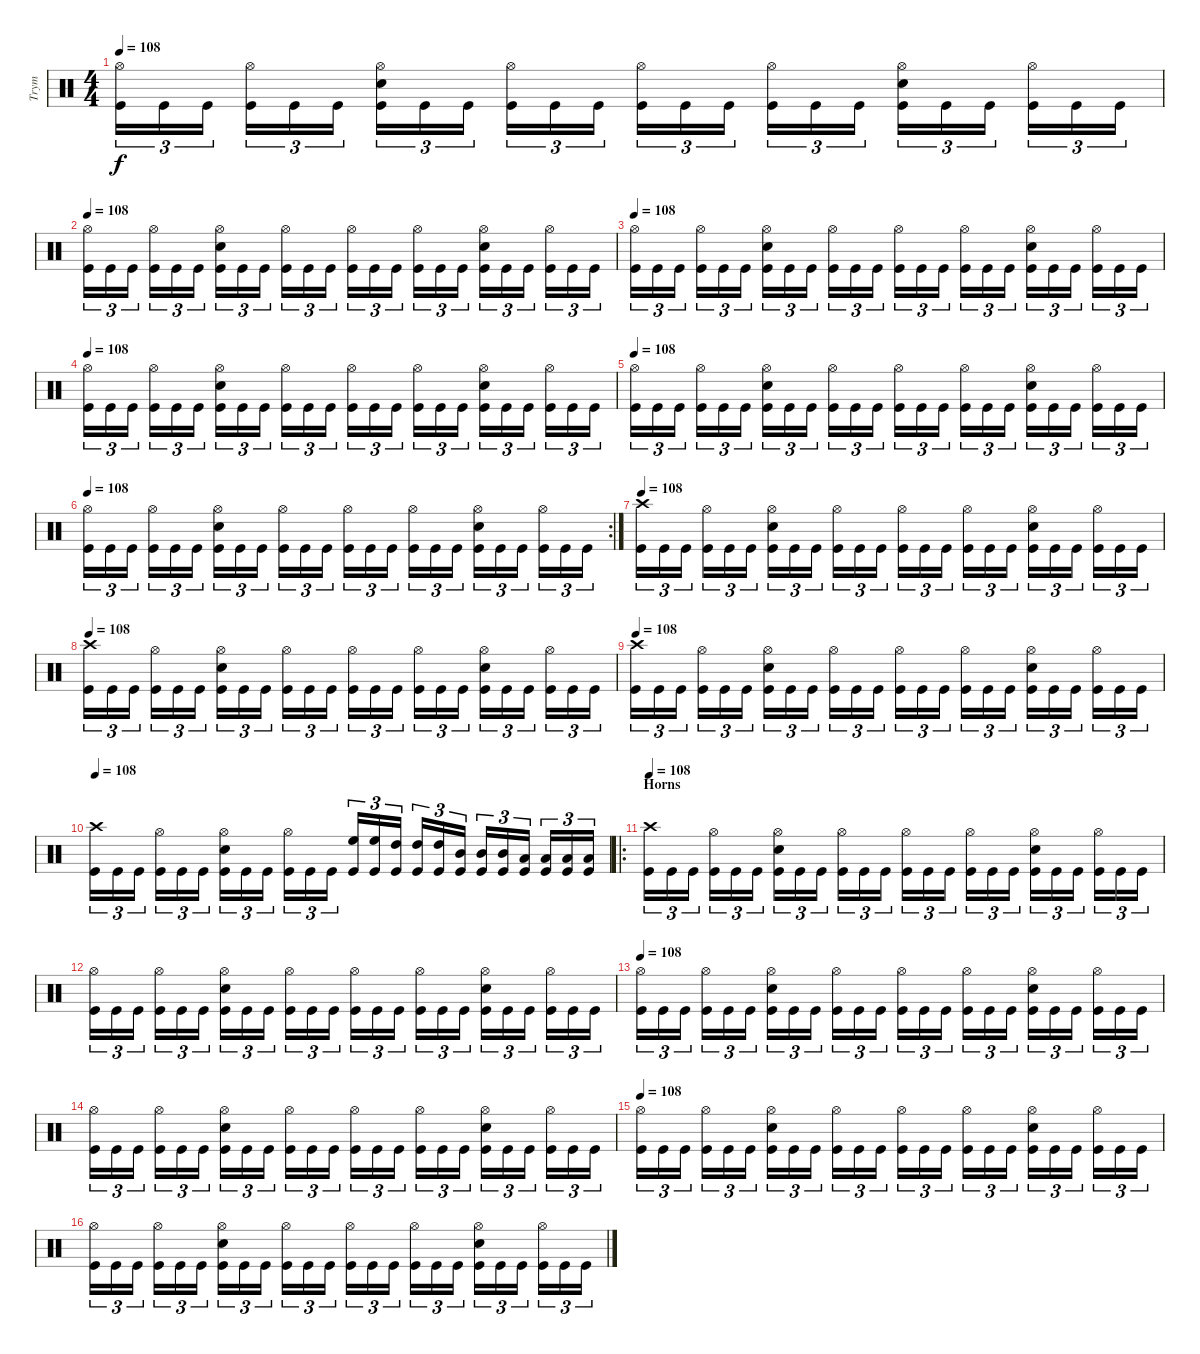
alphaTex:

\track ("Trym" "Trym") {instrument percussion}
\staff {score}
\articulation defaults
\ts (4 4)
\tempo 108
\clef neutral
\ks c
("Hi-Hat (open)" "Kick (hit)").16{tu (3 2) dy f} "Kick (hit)".16{tu (3 2)} "Kick (hit)".16{tu (3 2)} ("Hi-Hat (open)" "Kick (hit)").16{tu (3 2)} "Kick (hit)".16{tu (3 2)} "Kick (hit)".16{tu (3 2)} ("Hi-Hat (open)" "Electric Snare (hit)" "Kick (hit)").16{tu (3 2)} "Kick (hit)".16{tu (3 2)} "Kick (hit)".16{tu (3 2)} ("Hi-Hat (open)" "Kick (hit)").16{tu (3 2)} "Kick (hit)".16{tu (3 2)} "Kick (hit)".16{tu (3 2)} ("Hi-Hat (open)" "Kick (hit)").16{tu (3 2)} "Kick (hit)".16{tu (3 2)} "Kick (hit)".16{tu (3 2)} ("Hi-Hat (open)" "Kick (hit)").16{tu (3 2)} "Kick (hit)".16{tu (3 2)} "Kick (hit)".16{tu (3 2)} ("Hi-Hat (open)" "Electric Snare (hit)" "Kick (hit)").16{tu (3 2)} "Kick (hit)".16{tu (3 2)} "Kick (hit)".16{tu (3 2)} ("Hi-Hat (open)" "Kick (hit)").16{tu (3 2)} "Kick (hit)".16{tu (3 2)} "Kick (hit)".16{tu (3 2)} |
\tempo 108
("Hi-Hat (open)" "Kick (hit)").16{tu (3 2)} "Kick (hit)".16{tu (3 2)} "Kick (hit)".16{tu (3 2)} ("Hi-Hat (open)" "Kick (hit)").16{tu (3 2)} "Kick (hit)".16{tu (3 2)} "Kick (hit)".16{tu (3 2)} ("Hi-Hat (open)" "Electric Snare (hit)" "Kick (hit)").16{tu (3 2)} "Kick (hit)".16{tu (3 2)} "Kick (hit)".16{tu (3 2)} ("Hi-Hat (open)" "Kick (hit)").16{tu (3 2)} "Kick (hit)".16{tu (3 2)} "Kick (hit)".16{tu (3 2)} ("Hi-Hat (open)" "Kick (hit)").16{tu (3 2)} "Kick (hit)".16{tu (3 2)} "Kick (hit)".16{tu (3 2)} ("Hi-Hat (open)" "Kick (hit)").16{tu (3 2)} "Kick (hit)".16{tu (3 2)} "Kick (hit)".16{tu (3 2)} ("Hi-Hat (open)" "Electric Snare (hit)" "Kick (hit)").16{tu (3 2)} "Kick (hit)".16{tu (3 2)} "Kick (hit)".16{tu (3 2)} ("Hi-Hat (open)" "Kick (hit)").16{tu (3 2)} "Kick (hit)".16{tu (3 2)} "Kick (hit)".16{tu (3 2)} |
\tempo 108
("Hi-Hat (open)" "Kick (hit)").16{tu (3 2)} "Kick (hit)".16{tu (3 2)} "Kick (hit)".16{tu (3 2)} ("Hi-Hat (open)" "Kick (hit)").16{tu (3 2)} "Kick (hit)".16{tu (3 2)} "Kick (hit)".16{tu (3 2)} ("Hi-Hat (open)" "Electric Snare (hit)" "Kick (hit)").16{tu (3 2)} "Kick (hit)".16{tu (3 2)} "Kick (hit)".16{tu (3 2)} ("Hi-Hat (open)" "Kick (hit)").16{tu (3 2)} "Kick (hit)".16{tu (3 2)} "Kick (hit)".16{tu (3 2)} ("Hi-Hat (open)" "Kick (hit)").16{tu (3 2)} "Kick (hit)".16{tu (3 2)} "Kick (hit)".16{tu (3 2)} ("Hi-Hat (open)" "Kick (hit)").16{tu (3 2)} "Kick (hit)".16{tu (3 2)} "Kick (hit)".16{tu (3 2)} ("Hi-Hat (open)" "Electric Snare (hit)" "Kick (hit)").16{tu (3 2)} "Kick (hit)".16{tu (3 2)} "Kick (hit)".16{tu (3 2)} ("Hi-Hat (open)" "Kick (hit)").16{tu (3 2)} "Kick (hit)".16{tu (3 2)} "Kick (hit)".16{tu (3 2)} |
\tempo 108
("Hi-Hat (open)" "Kick (hit)").16{tu (3 2)} "Kick (hit)".16{tu (3 2)} "Kick (hit)".16{tu (3 2)} ("Hi-Hat (open)" "Kick (hit)").16{tu (3 2)} "Kick (hit)".16{tu (3 2)} "Kick (hit)".16{tu (3 2)} ("Hi-Hat (open)" "Electric Snare (hit)" "Kick (hit)").16{tu (3 2)} "Kick (hit)".16{tu (3 2)} "Kick (hit)".16{tu (3 2)} ("Hi-Hat (open)" "Kick (hit)").16{tu (3 2)} "Kick (hit)".16{tu (3 2)} "Kick (hit)".16{tu (3 2)} ("Hi-Hat (open)" "Kick (hit)").16{tu (3 2)} "Kick (hit)".16{tu (3 2)} "Kick (hit)".16{tu (3 2)} ("Hi-Hat (open)" "Kick (hit)").16{tu (3 2)} "Kick (hit)".16{tu (3 2)} "Kick (hit)".16{tu (3 2)} ("Hi-Hat (open)" "Electric Snare (hit)" "Kick (hit)").16{tu (3 2)} "Kick (hit)".16{tu (3 2)} "Kick (hit)".16{tu (3 2)} ("Hi-Hat (open)" "Kick (hit)").16{tu (3 2)} "Kick (hit)".16{tu (3 2)} "Kick (hit)".16{tu (3 2)} |
\tempo 108
("Hi-Hat (open)" "Kick (hit)").16{tu (3 2)} "Kick (hit)".16{tu (3 2)} "Kick (hit)".16{tu (3 2)} ("Hi-Hat (open)" "Kick (hit)").16{tu (3 2)} "Kick (hit)".16{tu (3 2)} "Kick (hit)".16{tu (3 2)} ("Hi-Hat (open)" "Electric Snare (hit)" "Kick (hit)").16{tu (3 2)} "Kick (hit)".16{tu (3 2)} "Kick (hit)".16{tu (3 2)} ("Hi-Hat (open)" "Kick (hit)").16{tu (3 2)} "Kick (hit)".16{tu (3 2)} "Kick (hit)".16{tu (3 2)} ("Hi-Hat (open)" "Kick (hit)").16{tu (3 2)} "Kick (hit)".16{tu (3 2)} "Kick (hit)".16{tu (3 2)} ("Hi-Hat (open)" "Kick (hit)").16{tu (3 2)} "Kick (hit)".16{tu (3 2)} "Kick (hit)".16{tu (3 2)} ("Hi-Hat (open)" "Electric Snare (hit)" "Kick (hit)").16{tu (3 2)} "Kick (hit)".16{tu (3 2)} "Kick (hit)".16{tu (3 2)} ("Hi-Hat (open)" "Kick (hit)").16{tu (3 2)} "Kick (hit)".16{tu (3 2)} "Kick (hit)".16{tu (3 2)} |
\rc 2
\tempo 108
("Hi-Hat (open)" "Kick (hit)").16{tu (3 2)} "Kick (hit)".16{tu (3 2)} "Kick (hit)".16{tu (3 2)} ("Hi-Hat (open)" "Kick (hit)").16{tu (3 2)} "Kick (hit)".16{tu (3 2)} "Kick (hit)".16{tu (3 2)} ("Hi-Hat (open)" "Electric Snare (hit)" "Kick (hit)").16{tu (3 2)} "Kick (hit)".16{tu (3 2)} "Kick (hit)".16{tu (3 2)} ("Hi-Hat (open)" "Kick (hit)").16{tu (3 2)} "Kick (hit)".16{tu (3 2)} "Kick (hit)".16{tu (3 2)} ("Hi-Hat (open)" "Kick (hit)").16{tu (3 2)} "Kick (hit)".16{tu (3 2)} "Kick (hit)".16{tu (3 2)} ("Hi-Hat (open)" "Kick (hit)").16{tu (3 2)} "Kick (hit)".16{tu (3 2)} "Kick (hit)".16{tu (3 2)} ("Hi-Hat (open)" "Electric Snare (hit)" "Kick (hit)").16{tu (3 2)} "Kick (hit)".16{tu (3 2)} "Kick (hit)".16{tu (3 2)} ("Hi-Hat (open)" "Kick (hit)").16{tu (3 2)} "Kick (hit)".16{tu (3 2)} "Kick (hit)".16{tu (3 2)} |
\tempo 108
("Crash high (hit)" "Kick (hit)").16{tu (3 2)} "Kick (hit)".16{tu (3 2)} "Kick (hit)".16{tu (3 2)} ("Hi-Hat (open)" "Kick (hit)").16{tu (3 2)} "Kick (hit)".16{tu (3 2)} "Kick (hit)".16{tu (3 2)} ("Hi-Hat (open)" "Electric Snare (hit)" "Kick (hit)").16{tu (3 2)} "Kick (hit)".16{tu (3 2)} "Kick (hit)".16{tu (3 2)} ("Hi-Hat (open)" "Kick (hit)").16{tu (3 2)} "Kick (hit)".16{tu (3 2)} "Kick (hit)".16{tu (3 2)} ("Hi-Hat (open)" "Kick (hit)").16{tu (3 2)} "Kick (hit)".16{tu (3 2)} "Kick (hit)".16{tu (3 2)} ("Hi-Hat (open)" "Kick (hit)").16{tu (3 2)} "Kick (hit)".16{tu (3 2)} "Kick (hit)".16{tu (3 2)} ("Hi-Hat (open)" "Electric Snare (hit)" "Kick (hit)").16{tu (3 2)} "Kick (hit)".16{tu (3 2)} "Kick (hit)".16{tu (3 2)} ("Hi-Hat (open)" "Kick (hit)").16{tu (3 2)} "Kick (hit)".16{tu (3 2)} "Kick (hit)".16{tu (3 2)} |
\tempo 108
("Crash high (hit)" "Kick (hit)").16{tu (3 2)} "Kick (hit)".16{tu (3 2)} "Kick (hit)".16{tu (3 2)} ("Hi-Hat (open)" "Kick (hit)").16{tu (3 2)} "Kick (hit)".16{tu (3 2)} "Kick (hit)".16{tu (3 2)} ("Hi-Hat (open)" "Electric Snare (hit)" "Kick (hit)").16{tu (3 2)} "Kick (hit)".16{tu (3 2)} "Kick (hit)".16{tu (3 2)} ("Hi-Hat (open)" "Kick (hit)").16{tu (3 2)} "Kick (hit)".16{tu (3 2)} "Kick (hit)".16{tu (3 2)} ("Hi-Hat (open)" "Kick (hit)").16{tu (3 2)} "Kick (hit)".16{tu (3 2)} "Kick (hit)".16{tu (3 2)} ("Hi-Hat (open)" "Kick (hit)").16{tu (3 2)} "Kick (hit)".16{tu (3 2)} "Kick (hit)".16{tu (3 2)} ("Hi-Hat (open)" "Electric Snare (hit)" "Kick (hit)").16{tu (3 2)} "Kick (hit)".16{tu (3 2)} "Kick (hit)".16{tu (3 2)} ("Hi-Hat (open)" "Kick (hit)").16{tu (3 2)} "Kick (hit)".16{tu (3 2)} "Kick (hit)".16{tu (3 2)} |
\tempo 108
("Crash high (hit)" "Kick (hit)").16{tu (3 2)} "Kick (hit)".16{tu (3 2)} "Kick (hit)".16{tu (3 2)} ("Hi-Hat (open)" "Kick (hit)").16{tu (3 2)} "Kick (hit)".16{tu (3 2)} "Kick (hit)".16{tu (3 2)} ("Hi-Hat (open)" "Electric Snare (hit)" "Kick (hit)").16{tu (3 2)} "Kick (hit)".16{tu (3 2)} "Kick (hit)".16{tu (3 2)} ("Hi-Hat (open)" "Kick (hit)").16{tu (3 2)} "Kick (hit)".16{tu (3 2)} "Kick (hit)".16{tu (3 2)} ("Hi-Hat (open)" "Kick (hit)").16{tu (3 2)} "Kick (hit)".16{tu (3 2)} "Kick (hit)".16{tu (3 2)} ("Hi-Hat (open)" "Kick (hit)").16{tu (3 2)} "Kick (hit)".16{tu (3 2)} "Kick (hit)".16{tu (3 2)} ("Hi-Hat (open)" "Electric Snare (hit)" "Kick (hit)").16{tu (3 2)} "Kick (hit)".16{tu (3 2)} "Kick (hit)".16{tu (3 2)} ("Hi-Hat (open)" "Kick (hit)").16{tu (3 2)} "Kick (hit)".16{tu (3 2)} "Kick (hit)".16{tu (3 2)} |
\tempo 108
("Crash high (hit)" "Kick (hit)").16{tu (3 2)} "Kick (hit)".16{tu (3 2)} "Kick (hit)".16{tu (3 2)} ("Hi-Hat (open)" "Kick (hit)").16{tu (3 2)} "Kick (hit)".16{tu (3 2)} "Kick (hit)".16{tu (3 2)} ("Hi-Hat (open)" "Electric Snare (hit)" "Kick (hit)").16{tu (3 2)} "Kick (hit)".16{tu (3 2)} "Kick (hit)".16{tu (3 2)} ("Hi-Hat (open)" "Kick (hit)").16{tu (3 2)} "Kick (hit)".16{tu (3 2)} "Kick (hit)".16{tu (3 2)} ("High Floor Tom (hit)" "Kick (hit)").16{tu (3 2)} ("High Floor Tom (hit)" "Kick (hit)").16{tu (3 2)} ("High Tom (hit)" "Kick (hit)").16{tu (3 2)} ("High Tom (hit)" "Kick (hit)").16{tu (3 2)} ("High Tom (hit)" "Kick (hit)").16{tu (3 2)} ("Mid Tom (hit)" "Kick (hit)").16{tu (3 2)} ("Mid Tom (hit)" "Kick (hit)").16{tu (3 2)} ("Mid Tom (hit)" "Kick (hit)").16{tu (3 2)} ("Low Tom (hit)" "Kick (hit)").16{tu (3 2)} ("Low Tom (hit)" "Kick (hit)").16{tu (3 2)} ("Low Tom (hit)" "Kick (hit)").16{tu (3 2)} ("Low Floor Tom (hit)" "Kick (hit)").16{tu (3 2)} |
\ro
\section ("" "Horns")
\tempo 108
("Crash high (hit)" "Kick (hit)").16{tu (3 2)} "Kick (hit)".16{tu (3 2)} "Kick (hit)".16{tu (3 2)} ("Hi-Hat (open)" "Kick (hit)").16{tu (3 2)} "Kick (hit)".16{tu (3 2)} "Kick (hit)".16{tu (3 2)} ("Hi-Hat (open)" "Electric Snare (hit)" "Kick (hit)").16{tu (3 2)} "Kick (hit)".16{tu (3 2)} "Kick (hit)".16{tu (3 2)} ("Hi-Hat (open)" "Kick (hit)").16{tu (3 2)} "Kick (hit)".16{tu (3 2)} "Kick (hit)".16{tu (3 2)} ("Hi-Hat (open)" "Kick (hit)").16{tu (3 2)} "Kick (hit)".16{tu (3 2)} "Kick (hit)".16{tu (3 2)} ("Hi-Hat (open)" "Kick (hit)").16{tu (3 2)} "Kick (hit)".16{tu (3 2)} "Kick (hit)".16{tu (3 2)} ("Hi-Hat (open)" "Electric Snare (hit)" "Kick (hit)").16{tu (3 2)} "Kick (hit)".16{tu (3 2)} "Kick (hit)".16{tu (3 2)} ("Hi-Hat (open)" "Kick (hit)").16{tu (3 2)} "Kick (hit)".16{tu (3 2)} "Kick (hit)".16{tu (3 2)} |
("Hi-Hat (open)" "Kick (hit)").16{tu (3 2)} "Kick (hit)".16{tu (3 2)} "Kick (hit)".16{tu (3 2)} ("Hi-Hat (open)" "Kick (hit)").16{tu (3 2)} "Kick (hit)".16{tu (3 2)} "Kick (hit)".16{tu (3 2)} ("Hi-Hat (open)" "Electric Snare (hit)" "Kick (hit)").16{tu (3 2)} "Kick (hit)".16{tu (3 2)} "Kick (hit)".16{tu (3 2)} ("Hi-Hat (open)" "Kick (hit)").16{tu (3 2)} "Kick (hit)".16{tu (3 2)} "Kick (hit)".16{tu (3 2)} ("Hi-Hat (open)" "Kick (hit)").16{tu (3 2)} "Kick (hit)".16{tu (3 2)} "Kick (hit)".16{tu (3 2)} ("Hi-Hat (open)" "Kick (hit)").16{tu (3 2)} "Kick (hit)".16{tu (3 2)} "Kick (hit)".16{tu (3 2)} ("Hi-Hat (open)" "Electric Snare (hit)" "Kick (hit)").16{tu (3 2)} "Kick (hit)".16{tu (3 2)} "Kick (hit)".16{tu (3 2)} ("Hi-Hat (open)" "Kick (hit)").16{tu (3 2)} "Kick (hit)".16{tu (3 2)} "Kick (hit)".16{tu (3 2)} |
\tempo 108
("Hi-Hat (open)" "Kick (hit)").16{tu (3 2)} "Kick (hit)".16{tu (3 2)} "Kick (hit)".16{tu (3 2)} ("Hi-Hat (open)" "Kick (hit)").16{tu (3 2)} "Kick (hit)".16{tu (3 2)} "Kick (hit)".16{tu (3 2)} ("Hi-Hat (open)" "Electric Snare (hit)" "Kick (hit)").16{tu (3 2)} "Kick (hit)".16{tu (3 2)} "Kick (hit)".16{tu (3 2)} ("Hi-Hat (open)" "Kick (hit)").16{tu (3 2)} "Kick (hit)".16{tu (3 2)} "Kick (hit)".16{tu (3 2)} ("Hi-Hat (open)" "Kick (hit)").16{tu (3 2)} "Kick (hit)".16{tu (3 2)} "Kick (hit)".16{tu (3 2)} ("Hi-Hat (open)" "Kick (hit)").16{tu (3 2)} "Kick (hit)".16{tu (3 2)} "Kick (hit)".16{tu (3 2)} ("Hi-Hat (open)" "Electric Snare (hit)" "Kick (hit)").16{tu (3 2)} "Kick (hit)".16{tu (3 2)} "Kick (hit)".16{tu (3 2)} ("Hi-Hat (open)" "Kick (hit)").16{tu (3 2)} "Kick (hit)".16{tu (3 2)} "Kick (hit)".16{tu (3 2)} |
("Hi-Hat (open)" "Kick (hit)").16{tu (3 2)} "Kick (hit)".16{tu (3 2)} "Kick (hit)".16{tu (3 2)} ("Hi-Hat (open)" "Kick (hit)").16{tu (3 2)} "Kick (hit)".16{tu (3 2)} "Kick (hit)".16{tu (3 2)} ("Hi-Hat (open)" "Electric Snare (hit)" "Kick (hit)").16{tu (3 2)} "Kick (hit)".16{tu (3 2)} "Kick (hit)".16{tu (3 2)} ("Hi-Hat (open)" "Kick (hit)").16{tu (3 2)} "Kick (hit)".16{tu (3 2)} "Kick (hit)".16{tu (3 2)} ("Hi-Hat (open)" "Kick (hit)").16{tu (3 2)} "Kick (hit)".16{tu (3 2)} "Kick (hit)".16{tu (3 2)} ("Hi-Hat (open)" "Kick (hit)").16{tu (3 2)} "Kick (hit)".16{tu (3 2)} "Kick (hit)".16{tu (3 2)} ("Hi-Hat (open)" "Electric Snare (hit)" "Kick (hit)").16{tu (3 2)} "Kick (hit)".16{tu (3 2)} "Kick (hit)".16{tu (3 2)} ("Hi-Hat (open)" "Kick (hit)").16{tu (3 2)} "Kick (hit)".16{tu (3 2)} "Kick (hit)".16{tu (3 2)} |
\tempo 108
("Hi-Hat (open)" "Kick (hit)").16{tu (3 2)} "Kick (hit)".16{tu (3 2)} "Kick (hit)".16{tu (3 2)} ("Hi-Hat (open)" "Kick (hit)").16{tu (3 2)} "Kick (hit)".16{tu (3 2)} "Kick (hit)".16{tu (3 2)} ("Hi-Hat (open)" "Electric Snare (hit)" "Kick (hit)").16{tu (3 2)} "Kick (hit)".16{tu (3 2)} "Kick (hit)".16{tu (3 2)} ("Hi-Hat (open)" "Kick (hit)").16{tu (3 2)} "Kick (hit)".16{tu (3 2)} "Kick (hit)".16{tu (3 2)} ("Hi-Hat (open)" "Kick (hit)").16{tu (3 2)} "Kick (hit)".16{tu (3 2)} "Kick (hit)".16{tu (3 2)} ("Hi-Hat (open)" "Kick (hit)").16{tu (3 2)} "Kick (hit)".16{tu (3 2)} "Kick (hit)".16{tu (3 2)} ("Hi-Hat (open)" "Electric Snare (hit)" "Kick (hit)").16{tu (3 2)} "Kick (hit)".16{tu (3 2)} "Kick (hit)".16{tu (3 2)} ("Hi-Hat (open)" "Kick (hit)").16{tu (3 2)} "Kick (hit)".16{tu (3 2)} "Kick (hit)".16{tu (3 2)} |
("Hi-Hat (open)" "Kick (hit)").16{tu (3 2)} "Kick (hit)".16{tu (3 2)} "Kick (hit)".16{tu (3 2)} ("Hi-Hat (open)" "Kick (hit)").16{tu (3 2)} "Kick (hit)".16{tu (3 2)} "Kick (hit)".16{tu (3 2)} ("Hi-Hat (open)" "Electric Snare (hit)" "Kick (hit)").16{tu (3 2)} "Kick (hit)".16{tu (3 2)} "Kick (hit)".16{tu (3 2)} ("Hi-Hat (open)" "Kick (hit)").16{tu (3 2)} "Kick (hit)".16{tu (3 2)} "Kick (hit)".16{tu (3 2)} ("Hi-Hat (open)" "Kick (hit)").16{tu (3 2)} "Kick (hit)".16{tu (3 2)} "Kick (hit)".16{tu (3 2)} ("Hi-Hat (open)" "Kick (hit)").16{tu (3 2)} "Kick (hit)".16{tu (3 2)} "Kick (hit)".16{tu (3 2)} ("Hi-Hat (open)" "Electric Snare (hit)" "Kick (hit)").16{tu (3 2)} "Kick (hit)".16{tu (3 2)} "Kick (hit)".16{tu (3 2)} ("Hi-Hat (open)" "Kick (hit)").16{tu (3 2)} "Kick (hit)".16{tu (3 2)} "Kick (hit)".16{tu (3 2)}
